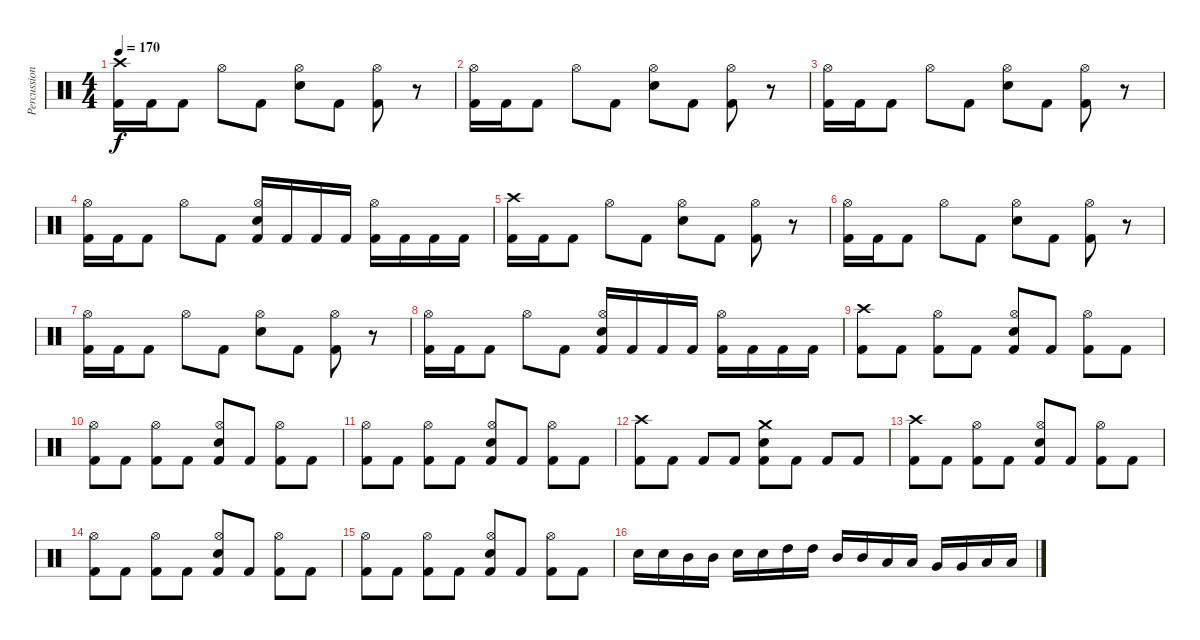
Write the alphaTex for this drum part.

\track ("Percussion" "Percussion") {instrument percussion}
\staff {score}
\articulation defaults
\ts (4 4)
\tempo 170
\clef neutral
\ks c
("Crash high (hit)" "Kick (hit) 2").16{dy f} "Kick (hit) 2".16 "Kick (hit) 2".8 "Hi-Hat (open)".8 "Kick (hit) 2".8 ("Hi-Hat (open)" "Snare (hit) 2").8 "Kick (hit) 2".8 ("Hi-Hat (open)" "Kick (hit) 2").8 r.8 |
("Hi-Hat (open)" "Kick (hit) 2").16 "Kick (hit) 2".16 "Kick (hit) 2".8 "Hi-Hat (open)".8 "Kick (hit) 2".8 ("Hi-Hat (open)" "Snare (hit) 2").8 "Kick (hit) 2".8 ("Hi-Hat (open)" "Kick (hit) 2").8 r.8 |
("Hi-Hat (open)" "Kick (hit) 2").16 "Kick (hit) 2".16 "Kick (hit) 2".8 "Hi-Hat (open)".8 "Kick (hit) 2".8 ("Hi-Hat (open)" "Snare (hit) 2").8 "Kick (hit) 2".8 ("Hi-Hat (open)" "Kick (hit) 2").8 r.8 |
("Hi-Hat (open)" "Kick (hit) 2").16 "Kick (hit) 2".16 "Kick (hit) 2".8 "Hi-Hat (open)".8 "Kick (hit) 2".8 ("Hi-Hat (open)" "Snare (hit) 2" "Kick (hit) 2").16 "Kick (hit) 2".16 "Kick (hit) 2".16 "Kick (hit) 2".16 ("Hi-Hat (open)" "Kick (hit) 2").16 "Kick (hit) 2".16 "Kick (hit) 2".16 "Kick (hit) 2".16 |
("Crash high (hit)" "Kick (hit) 2").16 "Kick (hit) 2".16 "Kick (hit) 2".8 "Hi-Hat (open)".8 "Kick (hit) 2".8 ("Hi-Hat (open)" "Snare (hit) 2").8 "Kick (hit) 2".8 ("Hi-Hat (open)" "Kick (hit) 2").8 r.8 |
("Hi-Hat (open)" "Kick (hit) 2").16 "Kick (hit) 2".16 "Kick (hit) 2".8 "Hi-Hat (open)".8 "Kick (hit) 2".8 ("Hi-Hat (open)" "Snare (hit) 2").8 "Kick (hit) 2".8 ("Hi-Hat (open)" "Kick (hit) 2").8 r.8 |
("Hi-Hat (open)" "Kick (hit) 2").16 "Kick (hit) 2".16 "Kick (hit) 2".8 "Hi-Hat (open)".8 "Kick (hit) 2".8 ("Hi-Hat (open)" "Snare (hit) 2").8 "Kick (hit) 2".8 ("Hi-Hat (open)" "Kick (hit) 2").8 r.8 |
("Hi-Hat (open)" "Kick (hit) 2").16 "Kick (hit) 2".16 "Kick (hit) 2".8 "Hi-Hat (open)".8 "Kick (hit) 2".8 ("Hi-Hat (open)" "Snare (hit) 2" "Kick (hit) 2").16 "Kick (hit) 2".16 "Kick (hit) 2".16 "Kick (hit) 2".16 ("Hi-Hat (open)" "Kick (hit) 2").16 "Kick (hit) 2".16 "Kick (hit) 2".16 "Kick (hit) 2".16 |
("Crash high (hit)" "Kick (hit) 2").8 "Kick (hit) 2".8 ("Hi-Hat (open)" "Kick (hit) 2").8 "Kick (hit) 2".8 ("Hi-Hat (open)" "Snare (hit) 2" "Kick (hit) 2").8 "Kick (hit) 2".8 ("Hi-Hat (open)" "Kick (hit) 2").8 "Kick (hit) 2".8 |
("Hi-Hat (open)" "Kick (hit) 2").8 "Kick (hit) 2".8 ("Hi-Hat (open)" "Kick (hit) 2").8 "Kick (hit) 2".8 ("Hi-Hat (open)" "Snare (hit) 2" "Kick (hit) 2").8 "Kick (hit) 2".8 ("Hi-Hat (open)" "Kick (hit) 2").8 "Kick (hit) 2".8 |
("Hi-Hat (open)" "Kick (hit) 2").8 "Kick (hit) 2".8 ("Hi-Hat (open)" "Kick (hit) 2").8 "Kick (hit) 2".8 ("Hi-Hat (open)" "Snare (hit) 2" "Kick (hit) 2").8 "Kick (hit) 2".8 ("Hi-Hat (open)" "Kick (hit) 2").8 "Kick (hit) 2".8 |
("Crash high (hit)" "Kick (hit) 2").8 "Kick (hit) 2".8 "Kick (hit) 2".8 "Kick (hit) 2".8 ("Crash medium (hit)" "Snare (hit) 2" "Kick (hit) 2").8 "Kick (hit) 2".8 "Kick (hit) 2".8 "Kick (hit) 2".8 |
("Crash high (hit)" "Kick (hit) 2").8 "Kick (hit) 2".8 ("Hi-Hat (open)" "Kick (hit) 2").8 "Kick (hit) 2".8 ("Hi-Hat (open)" "Snare (hit) 2" "Kick (hit) 2").8 "Kick (hit) 2".8 ("Hi-Hat (open)" "Kick (hit) 2").8 "Kick (hit) 2".8 |
("Hi-Hat (open)" "Kick (hit) 2").8 "Kick (hit) 2".8 ("Hi-Hat (open)" "Kick (hit) 2").8 "Kick (hit) 2".8 ("Hi-Hat (open)" "Snare (hit) 2" "Kick (hit) 2").8 "Kick (hit) 2".8 ("Hi-Hat (open)" "Kick (hit) 2").8 "Kick (hit) 2".8 |
("Hi-Hat (open)" "Kick (hit) 2").8 "Kick (hit) 2".8 ("Hi-Hat (open)" "Kick (hit) 2").8 "Kick (hit) 2".8 ("Hi-Hat (open)" "Snare (hit) 2" "Kick (hit) 2").8 "Kick (hit) 2".8 ("Hi-Hat (open)" "Kick (hit) 2").8 "Kick (hit) 2".8 |
"Snare (hit) 2".16 "Snare (hit) 2".16 "Mid Tom (hit)".16 "Mid Tom (hit)".16 "Snare (hit) 2".16 "Snare (hit) 2".16 "High Tom (hit)".16 "High Tom (hit)".16 "Mid Tom (hit)".16 "Mid Tom (hit)".16 "Low Tom (hit)".16 "Low Tom (hit)".16 "Very Low Tom (hit)".16 "Very Low Tom (hit)".16 "Low Floor Tom (hit)".16 "Low Floor Tom (hit)".16
